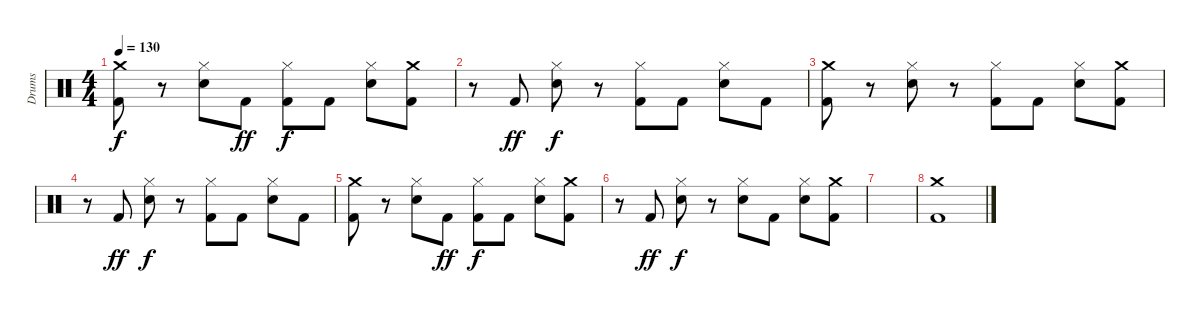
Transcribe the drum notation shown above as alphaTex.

\track ("Drums" "Drums") {instrument percussion}
\staff {score}
\articulation defaults
\ts (4 4)
\tempo 130
\clef neutral
\ks c
("Crash medium (hit)" "Kick (hit) 2").8{dy f} r.8 ("Hi-Hat (closed)" "Snare (hit) 2").8 "Kick (hit) 2".8{dy ff} ("Hi-Hat (closed)" "Kick (hit) 2").8{dy f} "Kick (hit) 2".8 ("Hi-Hat (closed)" "Snare (hit) 2").8 ("Crash medium (hit)" "Kick (hit) 2").8 |
r.8 "Kick (hit) 2".8{dy ff} ("Hi-Hat (closed)" "Snare (hit) 2").8{dy f} r.8 ("Hi-Hat (closed)" "Kick (hit) 2").8 "Kick (hit) 2".8 ("Hi-Hat (closed)" "Snare (hit) 2").8 "Kick (hit) 2".8 |
("Crash medium (hit)" "Kick (hit) 2").8 r.8 ("Hi-Hat (closed)" "Snare (hit) 2").8 r.8 ("Hi-Hat (closed)" "Kick (hit) 2").8 "Kick (hit) 2".8 ("Hi-Hat (closed)" "Snare (hit) 2").8 ("Crash medium (hit)" "Kick (hit) 2").8 |
r.8 "Kick (hit) 2".8{dy ff} ("Hi-Hat (closed)" "Snare (hit) 2").8{dy f} r.8 ("Hi-Hat (closed)" "Kick (hit) 2").8 "Kick (hit) 2".8 ("Hi-Hat (closed)" "Snare (hit) 2").8 "Kick (hit) 2".8 |
("Crash medium (hit)" "Kick (hit) 2").8 r.8 ("Hi-Hat (closed)" "Snare (hit) 2").8 "Kick (hit) 2".8{dy ff} ("Hi-Hat (closed)" "Kick (hit) 2").8{dy f} "Kick (hit) 2".8 ("Hi-Hat (closed)" "Snare (hit) 2").8 ("Crash medium (hit)" "Kick (hit) 2").8 |
r.8 "Kick (hit) 2".8{dy ff} ("Hi-Hat (closed)" "Snare (hit) 2").8{dy f} r.8 ("Hi-Hat (closed)" "Snare (hit) 2").8 "Kick (hit) 2".8 ("Hi-Hat (closed)" "Snare (hit) 2").8 ("Crash medium (hit)" "Kick (hit) 2").8 |
|
("Crash medium (hit)" "Kick (hit) 2").1
